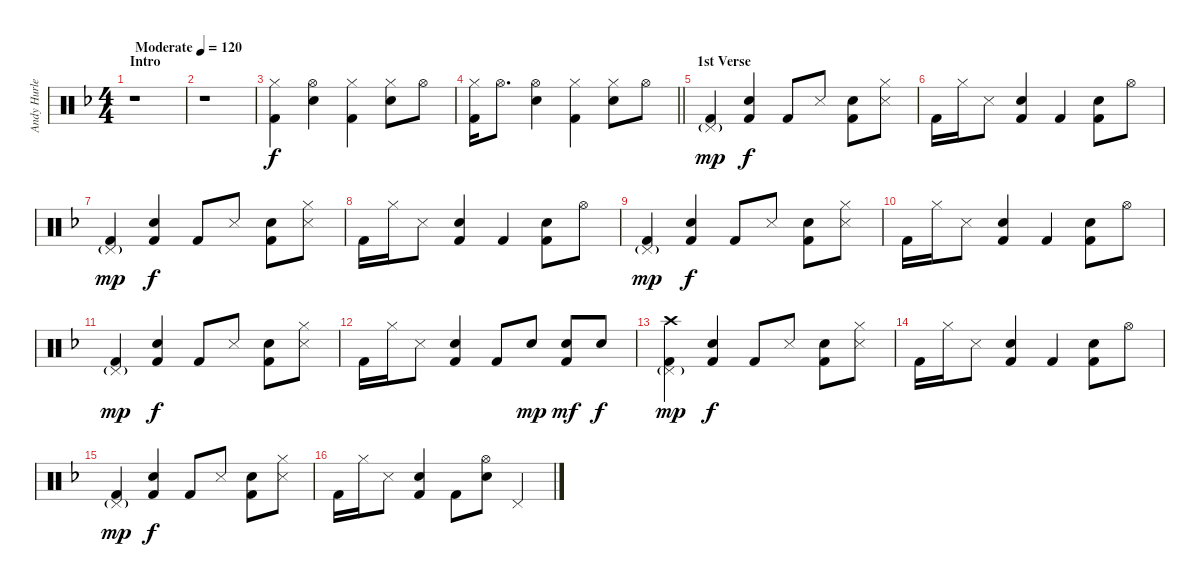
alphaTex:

\track ("Andy Hurley" "Andy Hurle") {instrument percussion}
\staff {score}
\articulation defaults
\ts (4 4)
\section ("" "Intro")
\tempo (120 "Moderate")
\clef neutral
\ks dminor
r.1{dy f} |
r.1 |
("Hi-Hat (closed)" "Kick (hit) 2").4{volume 10} ("Hi-Hat (open)" "Snare (hit) 2").4 ("Hi-Hat (closed)" "Kick (hit) 2").4 ("Hi-Hat (closed)" "Snare (hit) 2").8 "Hi-Hat (open)".8 |
\barLineRight lightlight
("Hi-Hat (closed)" "Kick (hit) 2").16 "Hi-Hat (open)".8{d} ("Hi-Hat (open)" "Snare (hit) 2").4 ("Hi-Hat (closed)" "Kick (hit) 2").4 ("Hi-Hat (closed)" "Snare (hit) 2").8 "Hi-Hat (open)".8 |
\section ("" "1st Verse")
("Pedal Hi-Hat (hit)"{g} "Kick (hit) 2").4{dy mp volume 16} ("Snare (hit) 2" "Kick (hit) 2").4{dy f} "Kick (hit) 2".8 "Snare (side stick) 3".8 ("Snare (hit) 2" "Kick (hit) 2").8 ("Hi-Hat (closed)" "Snare (side stick) 3").8 |
"Kick (hit) 2".16 "Hi-Hat (closed)".16 "Snare (side stick) 3".8 ("Snare (hit) 2" "Kick (hit) 2").4 "Kick (hit) 2".4 ("Snare (hit) 2" "Kick (hit) 2").8 "Hi-Hat (open)".8 |
("Pedal Hi-Hat (hit)"{g} "Kick (hit) 2").4{dy mp} ("Snare (hit) 2" "Kick (hit) 2").4{dy f} "Kick (hit) 2".8 "Snare (side stick) 3".8 ("Snare (hit) 2" "Kick (hit) 2").8 ("Hi-Hat (closed)" "Snare (side stick) 3").8 |
"Kick (hit) 2".16 "Hi-Hat (closed)".16 "Snare (side stick) 3".8 ("Snare (hit) 2" "Kick (hit) 2").4 "Kick (hit) 2".4 ("Snare (hit) 2" "Kick (hit) 2").8 "Hi-Hat (open)".8 |
("Pedal Hi-Hat (hit)"{g} "Kick (hit) 2").4{dy mp} ("Snare (hit) 2" "Kick (hit) 2").4{dy f} "Kick (hit) 2".8 "Snare (side stick) 3".8 ("Snare (hit) 2" "Kick (hit) 2").8 ("Hi-Hat (closed)" "Snare (side stick) 3").8 |
"Kick (hit) 2".16 "Hi-Hat (closed)".16 "Snare (side stick) 3".8 ("Snare (hit) 2" "Kick (hit) 2").4 "Kick (hit) 2".4 ("Snare (hit) 2" "Kick (hit) 2").8 "Hi-Hat (open)".8 |
("Pedal Hi-Hat (hit)"{g} "Kick (hit) 2").4{dy mp} ("Snare (hit) 2" "Kick (hit) 2").4{dy f} "Kick (hit) 2".8 "Snare (side stick) 3".8 ("Snare (hit) 2" "Kick (hit) 2").8 ("Hi-Hat (closed)" "Snare (side stick) 3").8 |
"Kick (hit) 2".16 "Hi-Hat (closed)".16 "Snare (side stick) 3".8 ("Snare (hit) 2" "Kick (hit) 2").4 "Kick (hit) 2".8 "Snare (hit) 2".8{dy mp} ("Snare (hit) 2" "Kick (hit) 2").8{dy mf} "Snare (hit) 2".8{dy f} |
("Crash high (hit)" "Pedal Hi-Hat (hit)"{g} "Kick (hit) 2").4{dy mp} ("Snare (hit) 2" "Kick (hit) 2").4{dy f} "Kick (hit) 2".8 "Snare (side stick) 3".8 ("Snare (hit) 2" "Kick (hit) 2").8 ("Hi-Hat (closed)" "Snare (side stick) 3").8 |
"Kick (hit) 2".16 "Hi-Hat (closed)".16 "Snare (side stick) 3".8 ("Snare (hit) 2" "Kick (hit) 2").4 "Kick (hit) 2".4 ("Snare (hit) 2" "Kick (hit) 2").8 "Hi-Hat (open)".8 |
("Pedal Hi-Hat (hit)"{g} "Kick (hit) 2").4{dy mp} ("Snare (hit) 2" "Kick (hit) 2").4{dy f} "Kick (hit) 2".8 "Snare (side stick) 3".8 ("Snare (hit) 2" "Kick (hit) 2").8 ("Hi-Hat (closed)" "Snare (side stick) 3").8 |
"Kick (hit) 2".16 "Hi-Hat (closed)".16 "Snare (side stick) 3".8 ("Snare (hit) 2" "Kick (hit) 2").4 "Kick (hit) 2".8 ("Hi-Hat (open)" "Snare (hit) 2").8 "Pedal Hi-Hat (hit)".4
